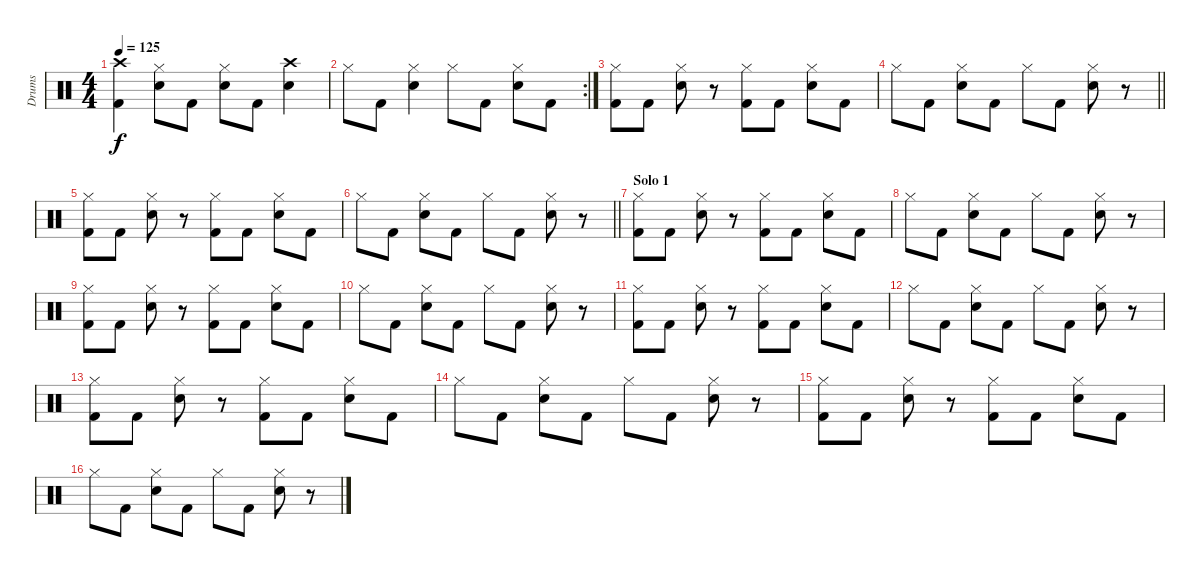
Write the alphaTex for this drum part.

\track ("Drums" "Drums") {instrument percussion}
\staff {score}
\articulation defaults
\ts (4 4)
\tempo 125
\clef neutral
\ks c
("Crash high (hit)" "Kick (hit) 2").4{dy f} ("Hi-Hat (closed)" "Snare (hit) 2").8 "Kick (hit) 2".8 ("Hi-Hat (closed)" "Snare (hit) 2").8 "Kick (hit) 2".8 ("Crash high (hit)" "Snare (hit) 2").4 |
\rc 2 "Hi-Hat (closed)".8 "Kick (hit) 2".8
("Hi-Hat (closed)" "Snare (hit) 2").4 "Hi-Hat (closed)".8 "Kick (hit) 2".8 ("Hi-Hat (closed)" "Snare (hit) 2").8 "Kick (hit) 2".8 |
("Hi-Hat (closed)" "Kick (hit) 2").8 "Kick (hit) 2".8 ("Hi-Hat (closed)" "Snare (hit) 2").8 r.8 ("Hi-Hat (closed)" "Kick (hit) 2").8 "Kick (hit) 2".8 ("Hi-Hat (closed)" "Snare (hit) 2").8 "Kick (hit) 2".8 |
\barLineRight lightlight "Hi-Hat (closed)".8 "Kick (hit) 2".8
("Hi-Hat (closed)" "Snare (hit) 2").8 "Kick (hit) 2".8 "Hi-Hat (closed)".8 "Kick (hit) 2".8 ("Hi-Hat (closed)" "Snare (hit) 2").8 r.8 |
("Hi-Hat (closed)" "Kick (hit) 2").8 "Kick (hit) 2".8 ("Hi-Hat (closed)" "Snare (hit) 2").8 r.8 ("Hi-Hat (closed)" "Kick (hit) 2").8 "Kick (hit) 2".8 ("Hi-Hat (closed)" "Snare (hit) 2").8 "Kick (hit) 2".8 |
\barLineRight lightlight "Hi-Hat (closed)".8 "Kick (hit) 2".8
("Hi-Hat (closed)" "Snare (hit) 2").8 "Kick (hit) 2".8 "Hi-Hat (closed)".8 "Kick (hit) 2".8 ("Hi-Hat (closed)" "Snare (hit) 2").8 r.8 |
\section ("" "Solo 1")
("Hi-Hat (closed)" "Kick (hit) 2").8 "Kick (hit) 2".8 ("Hi-Hat (closed)" "Snare (hit) 2").8 r.8 ("Hi-Hat (closed)" "Kick (hit) 2").8 "Kick (hit) 2".8 ("Hi-Hat (closed)" "Snare (hit) 2").8 "Kick (hit) 2".8 |
"Hi-Hat (closed)".8 "Kick (hit) 2".8 ("Hi-Hat (closed)" "Snare (hit) 2").8 "Kick (hit) 2".8 "Hi-Hat (closed)".8 "Kick (hit) 2".8 ("Hi-Hat (closed)" "Snare (hit) 2").8 r.8 |
("Hi-Hat (closed)" "Kick (hit) 2").8 "Kick (hit) 2".8 ("Hi-Hat (closed)" "Snare (hit) 2").8 r.8 ("Hi-Hat (closed)" "Kick (hit) 2").8 "Kick (hit) 2".8 ("Hi-Hat (closed)" "Snare (hit) 2").8 "Kick (hit) 2".8 |
"Hi-Hat (closed)".8 "Kick (hit) 2".8 ("Hi-Hat (closed)" "Snare (hit) 2").8 "Kick (hit) 2".8 "Hi-Hat (closed)".8 "Kick (hit) 2".8 ("Hi-Hat (closed)" "Snare (hit) 2").8 r.8 |
("Hi-Hat (closed)" "Kick (hit) 2").8 "Kick (hit) 2".8 ("Hi-Hat (closed)" "Snare (hit) 2").8 r.8 ("Hi-Hat (closed)" "Kick (hit) 2").8 "Kick (hit) 2".8 ("Hi-Hat (closed)" "Snare (hit) 2").8 "Kick (hit) 2".8 |
"Hi-Hat (closed)".8 "Kick (hit) 2".8 ("Hi-Hat (closed)" "Snare (hit) 2").8 "Kick (hit) 2".8 "Hi-Hat (closed)".8 "Kick (hit) 2".8 ("Hi-Hat (closed)" "Snare (hit) 2").8 r.8 |
("Hi-Hat (closed)" "Kick (hit) 2").8 "Kick (hit) 2".8 ("Hi-Hat (closed)" "Snare (hit) 2").8 r.8 ("Hi-Hat (closed)" "Kick (hit) 2").8 "Kick (hit) 2".8 ("Hi-Hat (closed)" "Snare (hit) 2").8 "Kick (hit) 2".8 |
"Hi-Hat (closed)".8 "Kick (hit) 2".8 ("Hi-Hat (closed)" "Snare (hit) 2").8 "Kick (hit) 2".8 "Hi-Hat (closed)".8 "Kick (hit) 2".8 ("Hi-Hat (closed)" "Snare (hit) 2").8 r.8 |
("Hi-Hat (closed)" "Kick (hit) 2").8 "Kick (hit) 2".8 ("Hi-Hat (closed)" "Snare (hit) 2").8 r.8 ("Hi-Hat (closed)" "Kick (hit) 2").8 "Kick (hit) 2".8 ("Hi-Hat (closed)" "Snare (hit) 2").8 "Kick (hit) 2".8 |
"Hi-Hat (closed)".8 "Kick (hit) 2".8 ("Hi-Hat (closed)" "Snare (hit) 2").8 "Kick (hit) 2".8 "Hi-Hat (closed)".8 "Kick (hit) 2".8 ("Hi-Hat (closed)" "Snare (hit) 2").8 r.8
